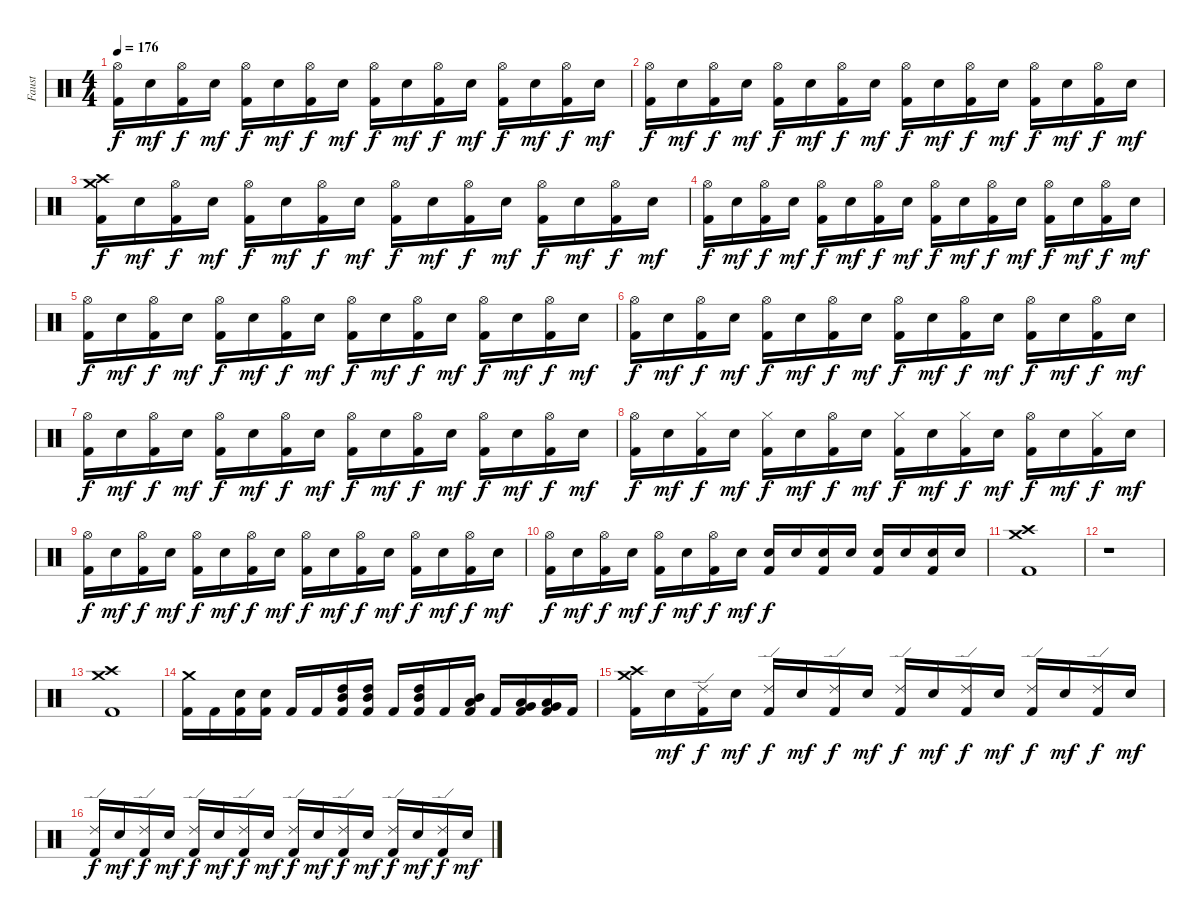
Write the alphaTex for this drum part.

\track ("Faust" "Faust") {instrument percussion}
\staff {score}
\articulation defaults
\ts (4 4)
\tempo 176
\clef neutral
\ks c
("Hi-Hat (open)" "Kick (hit) 2").16{dy f} "Electric Snare (hit)".16{dy mf} ("Hi-Hat (open)" "Kick (hit) 2").16{dy f} "Electric Snare (hit)".16{dy mf} ("Hi-Hat (open)" "Kick (hit) 2").16{dy f} "Electric Snare (hit)".16{dy mf} ("Hi-Hat (open)" "Kick (hit) 2").16{dy f} "Electric Snare (hit)".16{dy mf} ("Hi-Hat (open)" "Kick (hit) 2").16{dy f} "Electric Snare (hit)".16{dy mf} ("Hi-Hat (open)" "Kick (hit) 2").16{dy f} "Electric Snare (hit)".16{dy mf} ("Hi-Hat (open)" "Kick (hit) 2").16{dy f} "Electric Snare (hit)".16{dy mf} ("Hi-Hat (open)" "Kick (hit) 2").16{dy f} "Electric Snare (hit)".16{dy mf} |
("Hi-Hat (open)" "Kick (hit) 2").16{dy f} "Electric Snare (hit)".16{dy mf} ("Hi-Hat (open)" "Kick (hit) 2").16{dy f} "Electric Snare (hit)".16{dy mf} ("Hi-Hat (open)" "Kick (hit) 2").16{dy f} "Electric Snare (hit)".16{dy mf} ("Hi-Hat (open)" "Kick (hit) 2").16{dy f} "Electric Snare (hit)".16{dy mf} ("Hi-Hat (open)" "Kick (hit) 2").16{dy f} "Electric Snare (hit)".16{dy mf} ("Hi-Hat (open)" "Kick (hit) 2").16{dy f} "Electric Snare (hit)".16{dy mf} ("Hi-Hat (open)" "Kick (hit) 2").16{dy f} "Electric Snare (hit)".16{dy mf} ("Hi-Hat (open)" "Kick (hit) 2").16{dy f} "Electric Snare (hit)".16{dy mf} |
("Crash high (hit)" "Crash medium (hit)" "Kick (hit) 2").16{dy f} "Electric Snare (hit)".16{dy mf} ("Hi-Hat (open)" "Kick (hit) 2").16{dy f} "Electric Snare (hit)".16{dy mf} ("Hi-Hat (open)" "Kick (hit) 2").16{dy f} "Electric Snare (hit)".16{dy mf} ("Hi-Hat (open)" "Kick (hit) 2").16{dy f} "Electric Snare (hit)".16{dy mf} ("Hi-Hat (open)" "Kick (hit) 2").16{dy f} "Electric Snare (hit)".16{dy mf} ("Hi-Hat (open)" "Kick (hit) 2").16{dy f} "Electric Snare (hit)".16{dy mf} ("Hi-Hat (open)" "Kick (hit) 2").16{dy f} "Electric Snare (hit)".16{dy mf} ("Hi-Hat (open)" "Kick (hit) 2").16{dy f} "Electric Snare (hit)".16{dy mf} |
("Hi-Hat (open)" "Kick (hit) 2").16{dy f} "Electric Snare (hit)".16{dy mf} ("Hi-Hat (open)" "Kick (hit) 2").16{dy f} "Electric Snare (hit)".16{dy mf} ("Hi-Hat (open)" "Kick (hit) 2").16{dy f} "Electric Snare (hit)".16{dy mf} ("Hi-Hat (open)" "Kick (hit) 2").16{dy f} "Electric Snare (hit)".16{dy mf} ("Hi-Hat (open)" "Kick (hit) 2").16{dy f} "Electric Snare (hit)".16{dy mf} ("Hi-Hat (open)" "Kick (hit) 2").16{dy f} "Electric Snare (hit)".16{dy mf} ("Hi-Hat (open)" "Kick (hit) 2").16{dy f} "Electric Snare (hit)".16{dy mf} ("Hi-Hat (open)" "Kick (hit) 2").16{dy f} "Electric Snare (hit)".16{dy mf} |
("Hi-Hat (open)" "Kick (hit) 2").16{dy f} "Electric Snare (hit)".16{dy mf} ("Hi-Hat (open)" "Kick (hit) 2").16{dy f} "Electric Snare (hit)".16{dy mf} ("Hi-Hat (open)" "Kick (hit) 2").16{dy f} "Electric Snare (hit)".16{dy mf} ("Hi-Hat (open)" "Kick (hit) 2").16{dy f} "Electric Snare (hit)".16{dy mf} ("Hi-Hat (open)" "Kick (hit) 2").16{dy f} "Electric Snare (hit)".16{dy mf} ("Hi-Hat (open)" "Kick (hit) 2").16{dy f} "Electric Snare (hit)".16{dy mf} ("Hi-Hat (open)" "Kick (hit) 2").16{dy f} "Electric Snare (hit)".16{dy mf} ("Hi-Hat (open)" "Kick (hit) 2").16{dy f} "Electric Snare (hit)".16{dy mf} |
("Hi-Hat (open)" "Kick (hit) 2").16{dy f} "Electric Snare (hit)".16{dy mf} ("Hi-Hat (open)" "Kick (hit) 2").16{dy f} "Electric Snare (hit)".16{dy mf} ("Hi-Hat (open)" "Kick (hit) 2").16{dy f} "Electric Snare (hit)".16{dy mf} ("Hi-Hat (open)" "Kick (hit) 2").16{dy f} "Electric Snare (hit)".16{dy mf} ("Hi-Hat (open)" "Kick (hit) 2").16{dy f} "Electric Snare (hit)".16{dy mf} ("Hi-Hat (open)" "Kick (hit) 2").16{dy f} "Electric Snare (hit)".16{dy mf} ("Hi-Hat (open)" "Kick (hit) 2").16{dy f} "Electric Snare (hit)".16{dy mf} ("Hi-Hat (open)" "Kick (hit) 2").16{dy f} "Electric Snare (hit)".16{dy mf} |
("Hi-Hat (open)" "Kick (hit) 2").16{dy f} "Electric Snare (hit)".16{dy mf} ("Hi-Hat (open)" "Kick (hit) 2").16{dy f} "Electric Snare (hit)".16{dy mf} ("Hi-Hat (open)" "Kick (hit) 2").16{dy f} "Electric Snare (hit)".16{dy mf} ("Hi-Hat (open)" "Kick (hit) 2").16{dy f} "Electric Snare (hit)".16{dy mf} ("Hi-Hat (open)" "Kick (hit) 2").16{dy f} "Electric Snare (hit)".16{dy mf} ("Hi-Hat (open)" "Kick (hit) 2").16{dy f} "Electric Snare (hit)".16{dy mf} ("Hi-Hat (open)" "Kick (hit) 2").16{dy f} "Electric Snare (hit)".16{dy mf} ("Hi-Hat (open)" "Kick (hit) 2").16{dy f} "Electric Snare (hit)".16{dy mf} |
("Hi-Hat (open)" "Kick (hit) 2").16{dy f} "Electric Snare (hit)".16{dy mf} ("Hi-Hat (closed)" "Kick (hit) 2").16{dy f} "Electric Snare (hit)".16{dy mf} ("Hi-Hat (closed)" "Kick (hit) 2").16{dy f} "Electric Snare (hit)".16{dy mf} ("Hi-Hat (open)" "Kick (hit) 2").16{dy f} "Electric Snare (hit)".16{dy mf} ("Hi-Hat (closed)" "Kick (hit) 2").16{dy f} "Electric Snare (hit)".16{dy mf} ("Hi-Hat (closed)" "Kick (hit) 2").16{dy f} "Electric Snare (hit)".16{dy mf} ("Hi-Hat (open)" "Kick (hit) 2").16{dy f} "Electric Snare (hit)".16{dy mf} ("Hi-Hat (closed)" "Kick (hit) 2").16{dy f} "Electric Snare (hit)".16{dy mf} |
("Hi-Hat (open)" "Kick (hit) 2").16{dy f} "Electric Snare (hit)".16{dy mf} ("Hi-Hat (open)" "Kick (hit) 2").16{dy f} "Electric Snare (hit)".16{dy mf} ("Hi-Hat (open)" "Kick (hit) 2").16{dy f} "Electric Snare (hit)".16{dy mf} ("Hi-Hat (open)" "Kick (hit) 2").16{dy f} "Electric Snare (hit)".16{dy mf} ("Hi-Hat (open)" "Kick (hit) 2").16{dy f} "Electric Snare (hit)".16{dy mf} ("Hi-Hat (open)" "Kick (hit) 2").16{dy f} "Electric Snare (hit)".16{dy mf} ("Hi-Hat (open)" "Kick (hit) 2").16{dy f} "Electric Snare (hit)".16{dy mf} ("Hi-Hat (open)" "Kick (hit) 2").16{dy f} "Electric Snare (hit)".16{dy mf} |
("Hi-Hat (open)" "Kick (hit) 2").16{dy f} "Electric Snare (hit)".16{dy mf} ("Hi-Hat (open)" "Kick (hit) 2").16{dy f} "Electric Snare (hit)".16{dy mf} ("Hi-Hat (open)" "Kick (hit) 2").16{dy f} "Electric Snare (hit)".16{dy mf} ("Hi-Hat (open)" "Kick (hit) 2").16{dy f} "Electric Snare (hit)".16{dy mf} ("Electric Snare (hit)" "Kick (hit) 2").16{dy f} "Electric Snare (hit)".16 ("Electric Snare (hit)" "Kick (hit) 2").16 "Electric Snare (hit)".16 ("Electric Snare (hit)" "Kick (hit) 2").16 "Electric Snare (hit)".16 ("Electric Snare (hit)" "Kick (hit) 2").16 "Electric Snare (hit)".16 |
("Crash medium (hit)" "Crash high (hit)" "Kick (hit) 2").1 |
r.1 |
("Crash medium (hit)" "Crash high (hit)" "Kick (hit) 2").1 |
("Crash medium (hit)" "Kick (hit) 2").16 "Kick (hit) 2".16 ("Electric Snare (hit)" "Kick (hit) 2").16 ("Electric Snare (hit)" "Kick (hit) 2").16 "Kick (hit) 2".16 "Kick (hit) 2".16 ("High Tom (hit)" "Mid Tom (hit)" "Kick (hit) 2").16 ("High Tom (hit)" "Mid Tom (hit)" "Kick (hit) 2").16 "Kick (hit) 2".16 ("High Tom (hit)" "Mid Tom (hit)" "Kick (hit) 2").16 "Kick (hit) 2".16 ("Mid Tom (hit)" "Low Tom (hit)" "Kick (hit) 2").16 "Kick (hit) 2".16 ("Low Tom (hit)" "Very Low Tom (hit)" "Kick (hit) 2").16 ("Very Low Tom (hit)" "Low Floor Tom (hit)" "Kick (hit) 2").16 "Kick (hit) 2".16 |
("Crash high (hit)" "Crash medium (hit)" "Kick (hit) 2").16 "Electric Snare (hit)".16{dy mf} ("Ride (edge) 2" "Kick (hit) 2").16{dy f} "Electric Snare (hit)".16{dy mf} ("Ride (edge) 2" "Kick (hit) 2").16{dy f} "Electric Snare (hit)".16{dy mf} ("Ride (edge) 2" "Kick (hit) 2").16{dy f} "Electric Snare (hit)".16{dy mf} ("Ride (edge) 2" "Kick (hit) 2").16{dy f} "Electric Snare (hit)".16{dy mf} ("Ride (edge) 2" "Kick (hit) 2").16{dy f} "Electric Snare (hit)".16{dy mf} ("Ride (edge) 2" "Kick (hit) 2").16{dy f} "Electric Snare (hit)".16{dy mf} ("Ride (edge) 2" "Kick (hit) 2").16{dy f} "Electric Snare (hit)".16{dy mf} |
("Ride (edge) 2" "Kick (hit) 2").16{dy f} "Electric Snare (hit)".16{dy mf} ("Ride (edge) 2" "Kick (hit) 2").16{dy f} "Electric Snare (hit)".16{dy mf} ("Ride (edge) 2" "Kick (hit) 2").16{dy f} "Electric Snare (hit)".16{dy mf} ("Ride (edge) 2" "Kick (hit) 2").16{dy f} "Electric Snare (hit)".16{dy mf} ("Ride (edge) 2" "Kick (hit) 2").16{dy f} "Electric Snare (hit)".16{dy mf} ("Ride (edge) 2" "Kick (hit) 2").16{dy f} "Electric Snare (hit)".16{dy mf} ("Ride (edge) 2" "Kick (hit) 2").16{dy f} "Electric Snare (hit)".16{dy mf} ("Ride (edge) 2" "Kick (hit) 2").16{dy f} "Electric Snare (hit)".16{dy mf}
